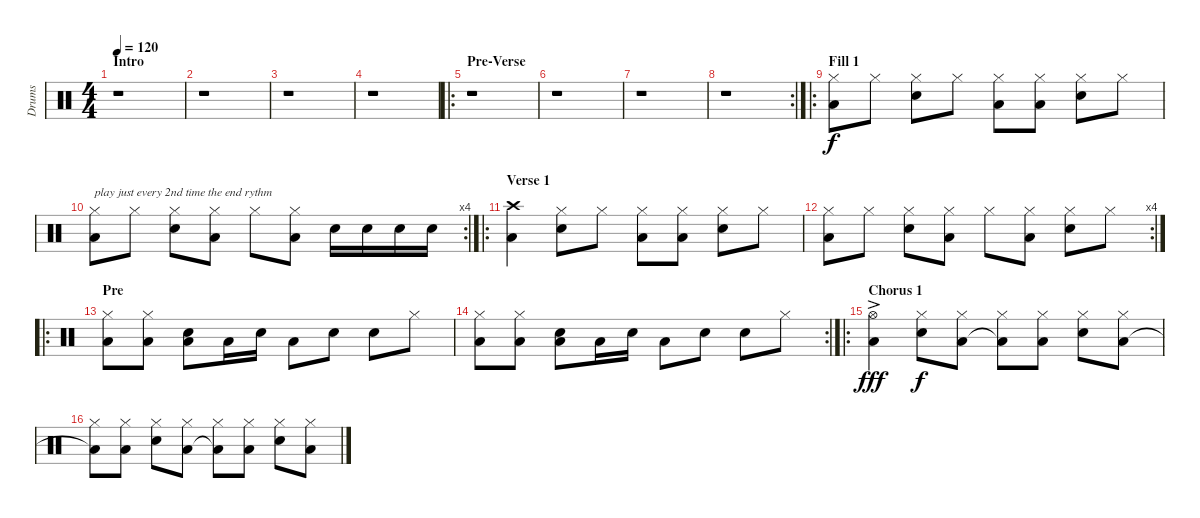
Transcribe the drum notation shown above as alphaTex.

\track ("Drums" "Drums") {instrument percussion}
\staff {score}
\articulation defaults
\ts (4 4)
\section ("" "Intro")
\tempo 120
\clef neutral
\ks c
r.1{dy f} |
r.1 |
r.1 |
r.1 |
\ro
\section ("" "Pre-Verse")
r.1 |
r.1 |
r.1 |
\rc 2
r.1 |
\ro
\section ("" "Fill 1")
("Hi-Hat (closed)" "Low Floor Tom (hit)").8 "Hi-Hat (closed)".8 ("Hi-Hat (closed)" "Snare (hit) 2").8 "Hi-Hat (closed)".8 ("Hi-Hat (closed)" "Low Floor Tom (hit)").8 ("Hi-Hat (closed)" "Low Floor Tom (hit)").8 ("Hi-Hat (closed)" "Snare (hit) 2").8 "Hi-Hat (closed)".8 |
\rc 4
("Hi-Hat (closed)" "Low Floor Tom (hit)").8{txt "play just every 2nd time the end rythm"} "Hi-Hat (closed)".8 ("Hi-Hat (closed)" "Snare (hit) 2").8 ("Hi-Hat (closed)" "Low Floor Tom (hit)").8 "Hi-Hat (closed)".8 ("Hi-Hat (closed)" "Low Floor Tom (hit)").8 "Snare (hit) 2".16 "Snare (hit) 2".16 "Snare (hit) 2".16 "Snare (hit) 2".16 |
\ro
\section ("" "Verse 1")
("Crash high (hit)" "Low Floor Tom (hit)").4 ("Hi-Hat (closed)" "Snare (hit) 2").8 "Hi-Hat (closed)".8 ("Hi-Hat (closed)" "Low Floor Tom (hit)").8 ("Hi-Hat (closed)" "Low Floor Tom (hit)").8 ("Hi-Hat (closed)" "Snare (hit) 2").8 "Hi-Hat (closed)".8 |
\rc 4
("Hi-Hat (closed)" "Low Floor Tom (hit)").8 "Hi-Hat (closed)".8 ("Hi-Hat (closed)" "Snare (hit) 2").8 ("Hi-Hat (closed)" "Low Floor Tom (hit)").8 "Hi-Hat (closed)".8 ("Hi-Hat (closed)" "Low Floor Tom (hit)").8 ("Hi-Hat (closed)" "Snare (hit) 2").8 "Hi-Hat (closed)".8 |
\ro
\section ("" "Pre")
("Hi-Hat (closed)" "Low Floor Tom (hit)").8 ("Hi-Hat (closed)" "Low Floor Tom (hit)").8 ("Low Floor Tom (hit)" "Snare (hit) 2").8 "Low Floor Tom (hit)".16 "Snare (hit) 2".16 "Low Floor Tom (hit)".8 "Snare (hit) 2".8 "Snare (hit) 2".8 "Hi-Hat (closed)".8 |
\rc 2
("Hi-Hat (closed)" "Low Floor Tom (hit)").8 ("Hi-Hat (closed)" "Low Floor Tom (hit)").8 ("Low Floor Tom (hit)" "Snare (hit) 2").8 "Low Floor Tom (hit)".16 "Snare (hit) 2".16 "Low Floor Tom (hit)".8 "Snare (hit) 2".8 "Snare (hit) 2".8 "Hi-Hat (closed)".8 |
\ro
\section ("" "Chorus 1")
("Hi-Hat (open)"{ac} "Low Floor Tom (hit)"{ac}).4{dy fff} ("Hi-Hat (closed)" "Snare (hit) 2").8{dy f} ("Hi-Hat (closed)" "Low Floor Tom (hit)").8 ("Hi-Hat (closed)" "Low Floor Tom (hit)"{t}).8 ("Hi-Hat (closed)" "Low Floor Tom (hit)").8 ("Hi-Hat (closed)" "Snare (hit) 2").8 ("Hi-Hat (closed)" "Low Floor Tom (hit)").8 |
("Hi-Hat (closed)" "Low Floor Tom (hit)"{t}).8 ("Hi-Hat (closed)" "Low Floor Tom (hit)").8 ("Hi-Hat (closed)" "Snare (hit) 2").8 ("Hi-Hat (closed)" "Low Floor Tom (hit)").8 ("Hi-Hat (closed)" "Low Floor Tom (hit)"{t}).8 ("Hi-Hat (closed)" "Low Floor Tom (hit)").8 ("Hi-Hat (closed)" "Snare (hit) 2").8 ("Hi-Hat (closed)" "Low Floor Tom (hit)").8
